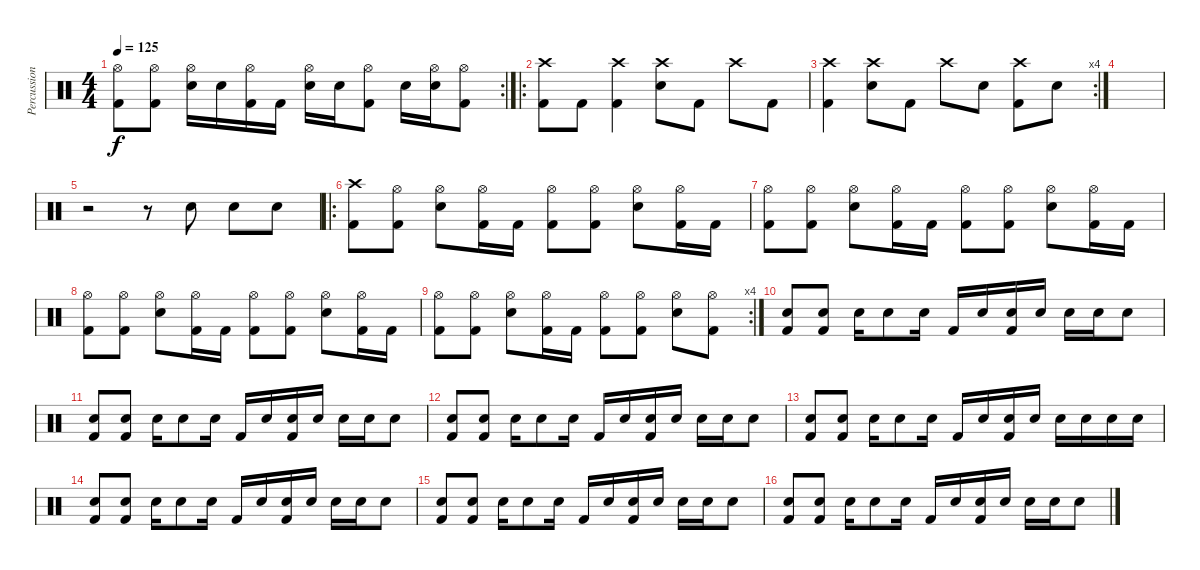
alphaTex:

\track ("Percussion" "Percussion") {instrument percussion}
\staff {score}
\articulation defaults
\rc 2
\ts (4 4)
\tempo 125
\clef neutral
\ks c
("Hi-Hat (open)" "Kick (hit) 2").8{dy f} ("Hi-Hat (open)" "Kick (hit) 2").8 ("Hi-Hat (open)" "Electric Snare (hit)").16 "Electric Snare (hit)".16 ("Hi-Hat (open)" "Kick (hit) 2").16 "Kick (hit) 2".16 ("Hi-Hat (open)" "Electric Snare (hit)").16 "Electric Snare (hit)".16 ("Hi-Hat (open)" "Kick (hit) 2").8 "Electric Snare (hit)".16 ("Hi-Hat (open)" "Electric Snare (hit)").16 ("Hi-Hat (open)" "Kick (hit) 2").8 |
\ro
("Crash high (hit)" "Kick (hit) 2").8 "Kick (hit) 2".8 ("Crash high (hit)" "Kick (hit) 2").4 ("Crash high (hit)" "Electric Snare (hit)").8 "Kick (hit) 2".8 "Crash high (hit)".8 "Kick (hit) 2".8 |
\rc 4
("Crash high (hit)" "Kick (hit) 2").4 ("Crash high (hit)" "Electric Snare (hit)").8 "Kick (hit) 2".8 "Crash high (hit)".8 "Electric Snare (hit)".8 ("Crash high (hit)" "Kick (hit) 2").8 "Electric Snare (hit)".8 |
|
r.2 r.8 "Electric Snare (hit)".8 "Electric Snare (hit)".8 "Electric Snare (hit)".8 |
\ro
("Crash high (hit)" "Kick (hit) 2").8 ("Hi-Hat (open)" "Kick (hit) 2").8 ("Hi-Hat (open)" "Electric Snare (hit)").8 ("Hi-Hat (open)" "Kick (hit) 2").16 "Kick (hit) 2".16 ("Hi-Hat (open)" "Kick (hit) 2").8 ("Hi-Hat (open)" "Kick (hit) 2").8 ("Hi-Hat (open)" "Electric Snare (hit)").8 ("Hi-Hat (open)" "Kick (hit) 2").16 "Kick (hit) 2".16 |
("Hi-Hat (open)" "Kick (hit) 2").8 ("Hi-Hat (open)" "Kick (hit) 2").8 ("Hi-Hat (open)" "Electric Snare (hit)").8 ("Hi-Hat (open)" "Kick (hit) 2").16 "Kick (hit) 2".16 ("Hi-Hat (open)" "Kick (hit) 2").8 ("Hi-Hat (open)" "Kick (hit) 2").8 ("Hi-Hat (open)" "Electric Snare (hit)").8 ("Hi-Hat (open)" "Kick (hit) 2").16 "Kick (hit) 2".16 |
("Hi-Hat (open)" "Kick (hit) 2").8 ("Hi-Hat (open)" "Kick (hit) 2").8 ("Hi-Hat (open)" "Electric Snare (hit)").8 ("Hi-Hat (open)" "Kick (hit) 2").16 "Kick (hit) 2".16 ("Hi-Hat (open)" "Kick (hit) 2").8 ("Hi-Hat (open)" "Kick (hit) 2").8 ("Hi-Hat (open)" "Electric Snare (hit)").8 ("Hi-Hat (open)" "Kick (hit) 2").16 "Kick (hit) 2".16 |
\rc 4
("Hi-Hat (open)" "Kick (hit) 2").8 ("Hi-Hat (open)" "Kick (hit) 2").8 ("Hi-Hat (open)" "Electric Snare (hit)").8 ("Hi-Hat (open)" "Kick (hit) 2").16 "Kick (hit) 2".16 ("Hi-Hat (open)" "Kick (hit) 2").8 ("Hi-Hat (open)" "Kick (hit) 2").8 ("Hi-Hat (open)" "Electric Snare (hit)").8 ("Hi-Hat (open)" "Kick (hit) 2").8 |
("Electric Snare (hit)" "Kick (hit) 2").8 ("Electric Snare (hit)" "Kick (hit) 2").8 "Electric Snare (hit)".16 "Electric Snare (hit)".8 "Electric Snare (hit)".16 "Kick (hit) 2".16 "Electric Snare (hit)".16 ("Electric Snare (hit)" "Kick (hit) 2").16 "Electric Snare (hit)".16 "Electric Snare (hit)".16 "Electric Snare (hit)".16 "Electric Snare (hit)".8 |
("Electric Snare (hit)" "Kick (hit) 2").8 ("Electric Snare (hit)" "Kick (hit) 2").8 "Electric Snare (hit)".16 "Electric Snare (hit)".8 "Electric Snare (hit)".16 "Kick (hit) 2".16 "Electric Snare (hit)".16 ("Electric Snare (hit)" "Kick (hit) 2").16 "Electric Snare (hit)".16 "Electric Snare (hit)".16 "Electric Snare (hit)".16 "Electric Snare (hit)".8 |
("Electric Snare (hit)" "Kick (hit) 2").8 ("Electric Snare (hit)" "Kick (hit) 2").8 "Electric Snare (hit)".16 "Electric Snare (hit)".8 "Electric Snare (hit)".16 "Kick (hit) 2".16 "Electric Snare (hit)".16 ("Electric Snare (hit)" "Kick (hit) 2").16 "Electric Snare (hit)".16 "Electric Snare (hit)".16 "Electric Snare (hit)".16 "Electric Snare (hit)".8 |
("Electric Snare (hit)" "Kick (hit) 2").8 ("Electric Snare (hit)" "Kick (hit) 2").8 "Electric Snare (hit)".16 "Electric Snare (hit)".8 "Electric Snare (hit)".16 "Kick (hit) 2".16 "Electric Snare (hit)".16 ("Electric Snare (hit)" "Kick (hit) 2").16 "Electric Snare (hit)".16 "Electric Snare (hit)".16 "Electric Snare (hit)".16 "Electric Snare (hit)".16 "Electric Snare (hit)".16 |
("Electric Snare (hit)" "Kick (hit) 2").8 ("Electric Snare (hit)" "Kick (hit) 2").8 "Electric Snare (hit)".16 "Electric Snare (hit)".8 "Electric Snare (hit)".16 "Kick (hit) 2".16 "Electric Snare (hit)".16 ("Electric Snare (hit)" "Kick (hit) 2").16 "Electric Snare (hit)".16 "Electric Snare (hit)".16 "Electric Snare (hit)".16 "Electric Snare (hit)".8 |
("Electric Snare (hit)" "Kick (hit) 2").8 ("Electric Snare (hit)" "Kick (hit) 2").8 "Electric Snare (hit)".16 "Electric Snare (hit)".8 "Electric Snare (hit)".16 "Kick (hit) 2".16 "Electric Snare (hit)".16 ("Electric Snare (hit)" "Kick (hit) 2").16 "Electric Snare (hit)".16 "Electric Snare (hit)".16 "Electric Snare (hit)".16 "Electric Snare (hit)".8 |
("Electric Snare (hit)" "Kick (hit) 2").8 ("Electric Snare (hit)" "Kick (hit) 2").8 "Electric Snare (hit)".16 "Electric Snare (hit)".8 "Electric Snare (hit)".16 "Kick (hit) 2".16 "Electric Snare (hit)".16 ("Electric Snare (hit)" "Kick (hit) 2").16 "Electric Snare (hit)".16 "Electric Snare (hit)".16 "Electric Snare (hit)".16 "Electric Snare (hit)".8
